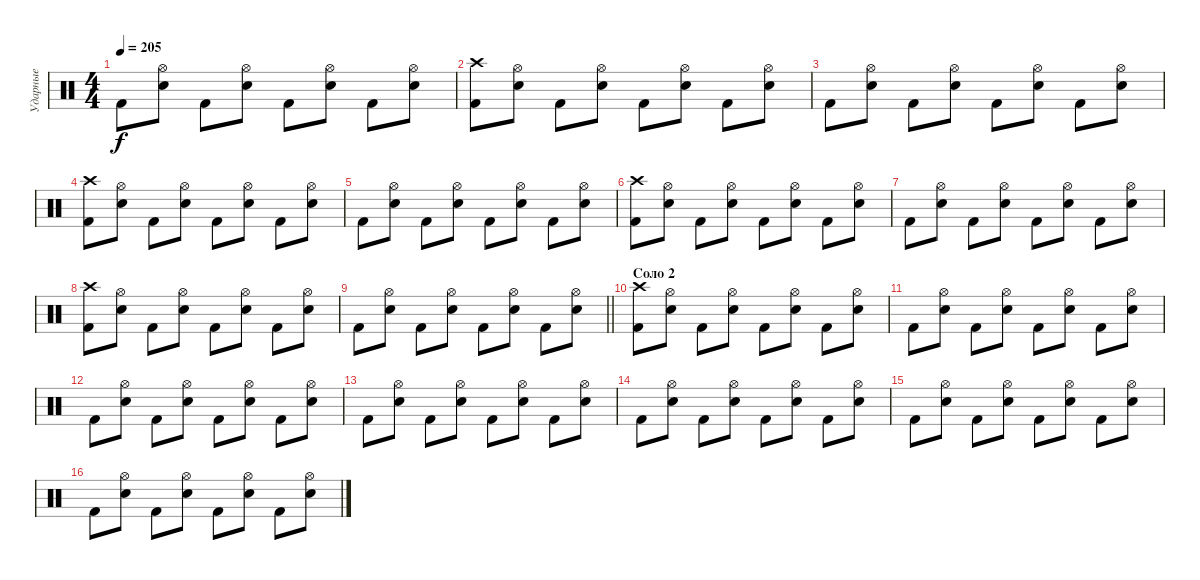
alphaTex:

\track ("Ударные" "Ударные") {instrument percussion}
\staff {score}
\articulation defaults
\ts (4 4)
\tempo 205
\clef neutral
\ks c "Kick (hit) 2".8{dy f}
("Hi-Hat (open)" "Electric Snare (hit)").8 "Kick (hit) 2".8 ("Hi-Hat (open)" "Electric Snare (hit)").8 "Kick (hit) 2".8 ("Hi-Hat (open)" "Electric Snare (hit)").8 "Kick (hit) 2".8 ("Hi-Hat (open)" "Electric Snare (hit)").8 |
("Crash high (hit)" "Kick (hit) 2").8 ("Hi-Hat (open)" "Electric Snare (hit)").8 "Kick (hit) 2".8 ("Hi-Hat (open)" "Electric Snare (hit)").8 "Kick (hit) 2".8 ("Hi-Hat (open)" "Electric Snare (hit)").8 "Kick (hit) 2".8 ("Hi-Hat (open)" "Electric Snare (hit)").8 |
"Kick (hit) 2".8 ("Hi-Hat (open)" "Electric Snare (hit)").8 "Kick (hit) 2".8 ("Hi-Hat (open)" "Electric Snare (hit)").8 "Kick (hit) 2".8 ("Hi-Hat (open)" "Electric Snare (hit)").8 "Kick (hit) 2".8 ("Hi-Hat (open)" "Electric Snare (hit)").8 |
("Crash high (hit)" "Kick (hit) 2").8 ("Hi-Hat (open)" "Electric Snare (hit)").8 "Kick (hit) 2".8 ("Hi-Hat (open)" "Electric Snare (hit)").8 "Kick (hit) 2".8 ("Hi-Hat (open)" "Electric Snare (hit)").8 "Kick (hit) 2".8 ("Hi-Hat (open)" "Electric Snare (hit)").8 |
"Kick (hit) 2".8 ("Hi-Hat (open)" "Electric Snare (hit)").8 "Kick (hit) 2".8 ("Hi-Hat (open)" "Electric Snare (hit)").8 "Kick (hit) 2".8 ("Hi-Hat (open)" "Electric Snare (hit)").8 "Kick (hit) 2".8 ("Hi-Hat (open)" "Electric Snare (hit)").8 |
("Crash high (hit)" "Kick (hit) 2").8 ("Hi-Hat (open)" "Electric Snare (hit)").8 "Kick (hit) 2".8 ("Hi-Hat (open)" "Electric Snare (hit)").8 "Kick (hit) 2".8 ("Hi-Hat (open)" "Electric Snare (hit)").8 "Kick (hit) 2".8 ("Hi-Hat (open)" "Electric Snare (hit)").8 |
"Kick (hit) 2".8 ("Hi-Hat (open)" "Electric Snare (hit)").8 "Kick (hit) 2".8 ("Hi-Hat (open)" "Electric Snare (hit)").8 "Kick (hit) 2".8 ("Hi-Hat (open)" "Electric Snare (hit)").8 "Kick (hit) 2".8 ("Hi-Hat (open)" "Electric Snare (hit)").8 |
("Crash high (hit)" "Kick (hit) 2").8 ("Hi-Hat (open)" "Electric Snare (hit)").8 "Kick (hit) 2".8 ("Hi-Hat (open)" "Electric Snare (hit)").8 "Kick (hit) 2".8 ("Hi-Hat (open)" "Electric Snare (hit)").8 "Kick (hit) 2".8 ("Hi-Hat (open)" "Electric Snare (hit)").8 |
\barLineRight lightlight "Kick (hit) 2".8
("Hi-Hat (open)" "Electric Snare (hit)").8 "Kick (hit) 2".8 ("Hi-Hat (open)" "Electric Snare (hit)").8 "Kick (hit) 2".8 ("Hi-Hat (open)" "Electric Snare (hit)").8 "Kick (hit) 2".8 ("Hi-Hat (open)" "Electric Snare (hit)").8 |
\section ("" "Соло 2")
("Crash high (hit)" "Kick (hit) 2").8 ("Hi-Hat (open)" "Electric Snare (hit)").8 "Kick (hit) 2".8 ("Hi-Hat (open)" "Electric Snare (hit)").8 "Kick (hit) 2".8 ("Hi-Hat (open)" "Electric Snare (hit)").8 "Kick (hit) 2".8 ("Hi-Hat (open)" "Electric Snare (hit)").8 |
"Kick (hit) 2".8 ("Hi-Hat (open)" "Electric Snare (hit)").8 "Kick (hit) 2".8 ("Hi-Hat (open)" "Electric Snare (hit)").8 "Kick (hit) 2".8 ("Hi-Hat (open)" "Electric Snare (hit)").8 "Kick (hit) 2".8 ("Hi-Hat (open)" "Electric Snare (hit)").8 |
"Kick (hit) 2".8 ("Hi-Hat (open)" "Electric Snare (hit)").8 "Kick (hit) 2".8 ("Hi-Hat (open)" "Electric Snare (hit)").8 "Kick (hit) 2".8 ("Hi-Hat (open)" "Electric Snare (hit)").8 "Kick (hit) 2".8 ("Hi-Hat (open)" "Electric Snare (hit)").8 |
"Kick (hit) 2".8 ("Hi-Hat (open)" "Electric Snare (hit)").8 "Kick (hit) 2".8 ("Hi-Hat (open)" "Electric Snare (hit)").8 "Kick (hit) 2".8 ("Hi-Hat (open)" "Electric Snare (hit)").8 "Kick (hit) 2".8 ("Hi-Hat (open)" "Electric Snare (hit)").8 |
"Kick (hit) 2".8 ("Hi-Hat (open)" "Electric Snare (hit)").8 "Kick (hit) 2".8 ("Hi-Hat (open)" "Electric Snare (hit)").8 "Kick (hit) 2".8 ("Hi-Hat (open)" "Electric Snare (hit)").8 "Kick (hit) 2".8 ("Hi-Hat (open)" "Electric Snare (hit)").8 |
"Kick (hit) 2".8 ("Hi-Hat (open)" "Electric Snare (hit)").8 "Kick (hit) 2".8 ("Hi-Hat (open)" "Electric Snare (hit)").8 "Kick (hit) 2".8 ("Hi-Hat (open)" "Electric Snare (hit)").8 "Kick (hit) 2".8 ("Hi-Hat (open)" "Electric Snare (hit)").8 |
"Kick (hit) 2".8 ("Hi-Hat (open)" "Electric Snare (hit)").8 "Kick (hit) 2".8 ("Hi-Hat (open)" "Electric Snare (hit)").8 "Kick (hit) 2".8 ("Hi-Hat (open)" "Electric Snare (hit)").8 "Kick (hit) 2".8 ("Hi-Hat (open)" "Electric Snare (hit)").8
